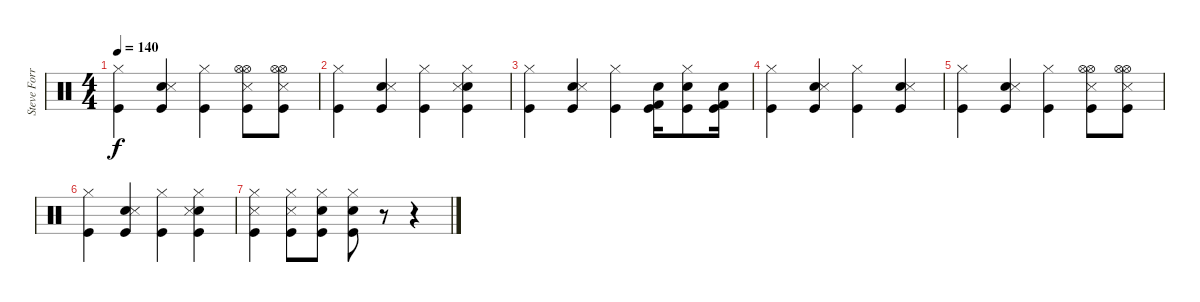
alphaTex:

\track ("Steve Forrest - Drums" "Steve Forr") {instrument percussion}
\staff {score}
\articulation defaults
\ts (4 4)
\tempo 140
\clef neutral
\ks c
("Hi-Hat (closed)" "Kick (hit)").4{dy f} ("Electric Snare (hit)" "Snare (side stick) 3" "Kick (hit)").4 ("Hi-Hat (closed)" "Kick (hit)").4 ("Hi-Hat (open)" "Hi-Hat (open)" "Snare (side stick) 3" "Kick (hit)").8 ("Hi-Hat (open)" "Hi-Hat (open)" "Snare (side stick) 3" "Kick (hit)").8 |
("Hi-Hat (closed)" "Kick (hit)").4 ("Electric Snare (hit)" "Snare (side stick) 3" "Kick (hit)").4 ("Hi-Hat (closed)" "Kick (hit)").4 ("Electric Snare (hit)" "Snare (side stick) 3" "Hi-Hat (closed)" "Kick (hit)").4 |
("Hi-Hat (closed)" "Kick (hit)").4 ("Electric Snare (hit)" "Snare (side stick) 3" "Kick (hit)").4 ("Hi-Hat (closed)" "Kick (hit)").4 ("Kick (hit) 2" "Electric Snare (hit)" "Kick (hit)").16 ("Hi-Hat (closed)" "Electric Snare (hit)" "Kick (hit)").8 ("Kick (hit) 2" "Electric Snare (hit)" "Kick (hit)").16 |
("Hi-Hat (closed)" "Kick (hit)").4 ("Electric Snare (hit)" "Snare (side stick) 3" "Kick (hit)").4 ("Hi-Hat (closed)" "Kick (hit)").4 ("Electric Snare (hit)" "Snare (side stick) 3" "Kick (hit)").4 |
("Hi-Hat (closed)" "Kick (hit)").4 ("Electric Snare (hit)" "Snare (side stick) 3" "Kick (hit)").4 ("Hi-Hat (closed)" "Kick (hit)").4 ("Hi-Hat (open)" "Hi-Hat (open)" "Snare (side stick) 3" "Kick (hit)").8 ("Hi-Hat (open)" "Hi-Hat (open)" "Snare (side stick) 3" "Kick (hit)").8 |
("Hi-Hat (closed)" "Kick (hit)").4 ("Electric Snare (hit)" "Snare (side stick) 3" "Kick (hit)").4 ("Hi-Hat (closed)" "Kick (hit)").4 ("Electric Snare (hit)" "Snare (side stick) 3" "Hi-Hat (closed)" "Kick (hit)").4 |
("Snare (side stick) 3" "Hi-Hat (closed)" "Kick (hit)").4 ("Snare (side stick) 3" "Hi-Hat (closed)" "Kick (hit)").8 ("Snare (hit) 2" "Hi-Hat (closed)" "Kick (hit)").8 ("Snare (hit) 2" "Hi-Hat (closed)" "Kick (hit)").8 r.8 r.4
